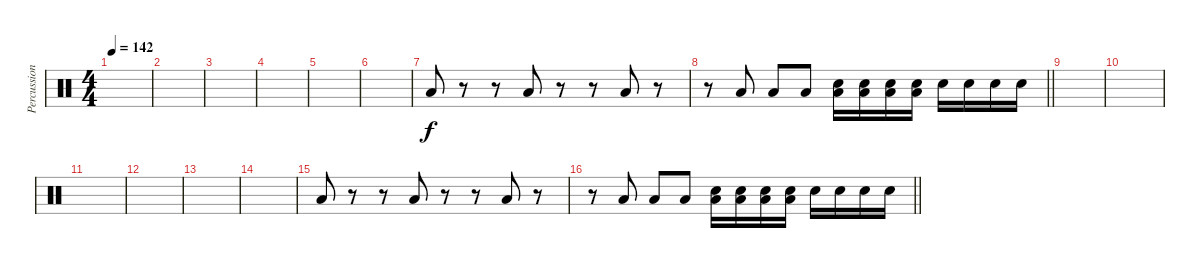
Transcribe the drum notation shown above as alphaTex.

\track ("Percussion" "Percussion") {instrument percussion}
\staff {score}
\articulation defaults
\ts (4 4)
\tempo 142
\clef neutral
\ks c
|
|
|
|
|
|
"Low Tom (hit)".8 r.8 r.8 "Low Tom (hit)".8 r.8 r.8 "Low Tom (hit)".8 r.8 |
\barLineRight lightlight
r.8 "Low Tom (hit)".8 "Low Tom (hit)".8 "Low Tom (hit)".8 ("Low Tom (hit)" "Snare (hit) 2").16 ("Low Tom (hit)" "Snare (hit) 2").16 ("Low Tom (hit)" "Snare (hit) 2").16 ("Low Tom (hit)" "Snare (hit) 2").16 "Snare (hit) 2".16 "Snare (hit) 2".16 "Snare (hit) 2".16 "Snare (hit) 2".16 |
|
|
|
|
|
|
"Low Tom (hit)".8 r.8 r.8 "Low Tom (hit)".8 r.8 r.8 "Low Tom (hit)".8 r.8 |
\barLineRight lightlight
r.8 "Low Tom (hit)".8 "Low Tom (hit)".8 "Low Tom (hit)".8 ("Low Tom (hit)" "Snare (hit) 2").16 ("Low Tom (hit)" "Snare (hit) 2").16 ("Low Tom (hit)" "Snare (hit) 2").16 ("Low Tom (hit)" "Snare (hit) 2").16 "Snare (hit) 2".16 "Snare (hit) 2".16 "Snare (hit) 2".16 "Snare (hit) 2".16
